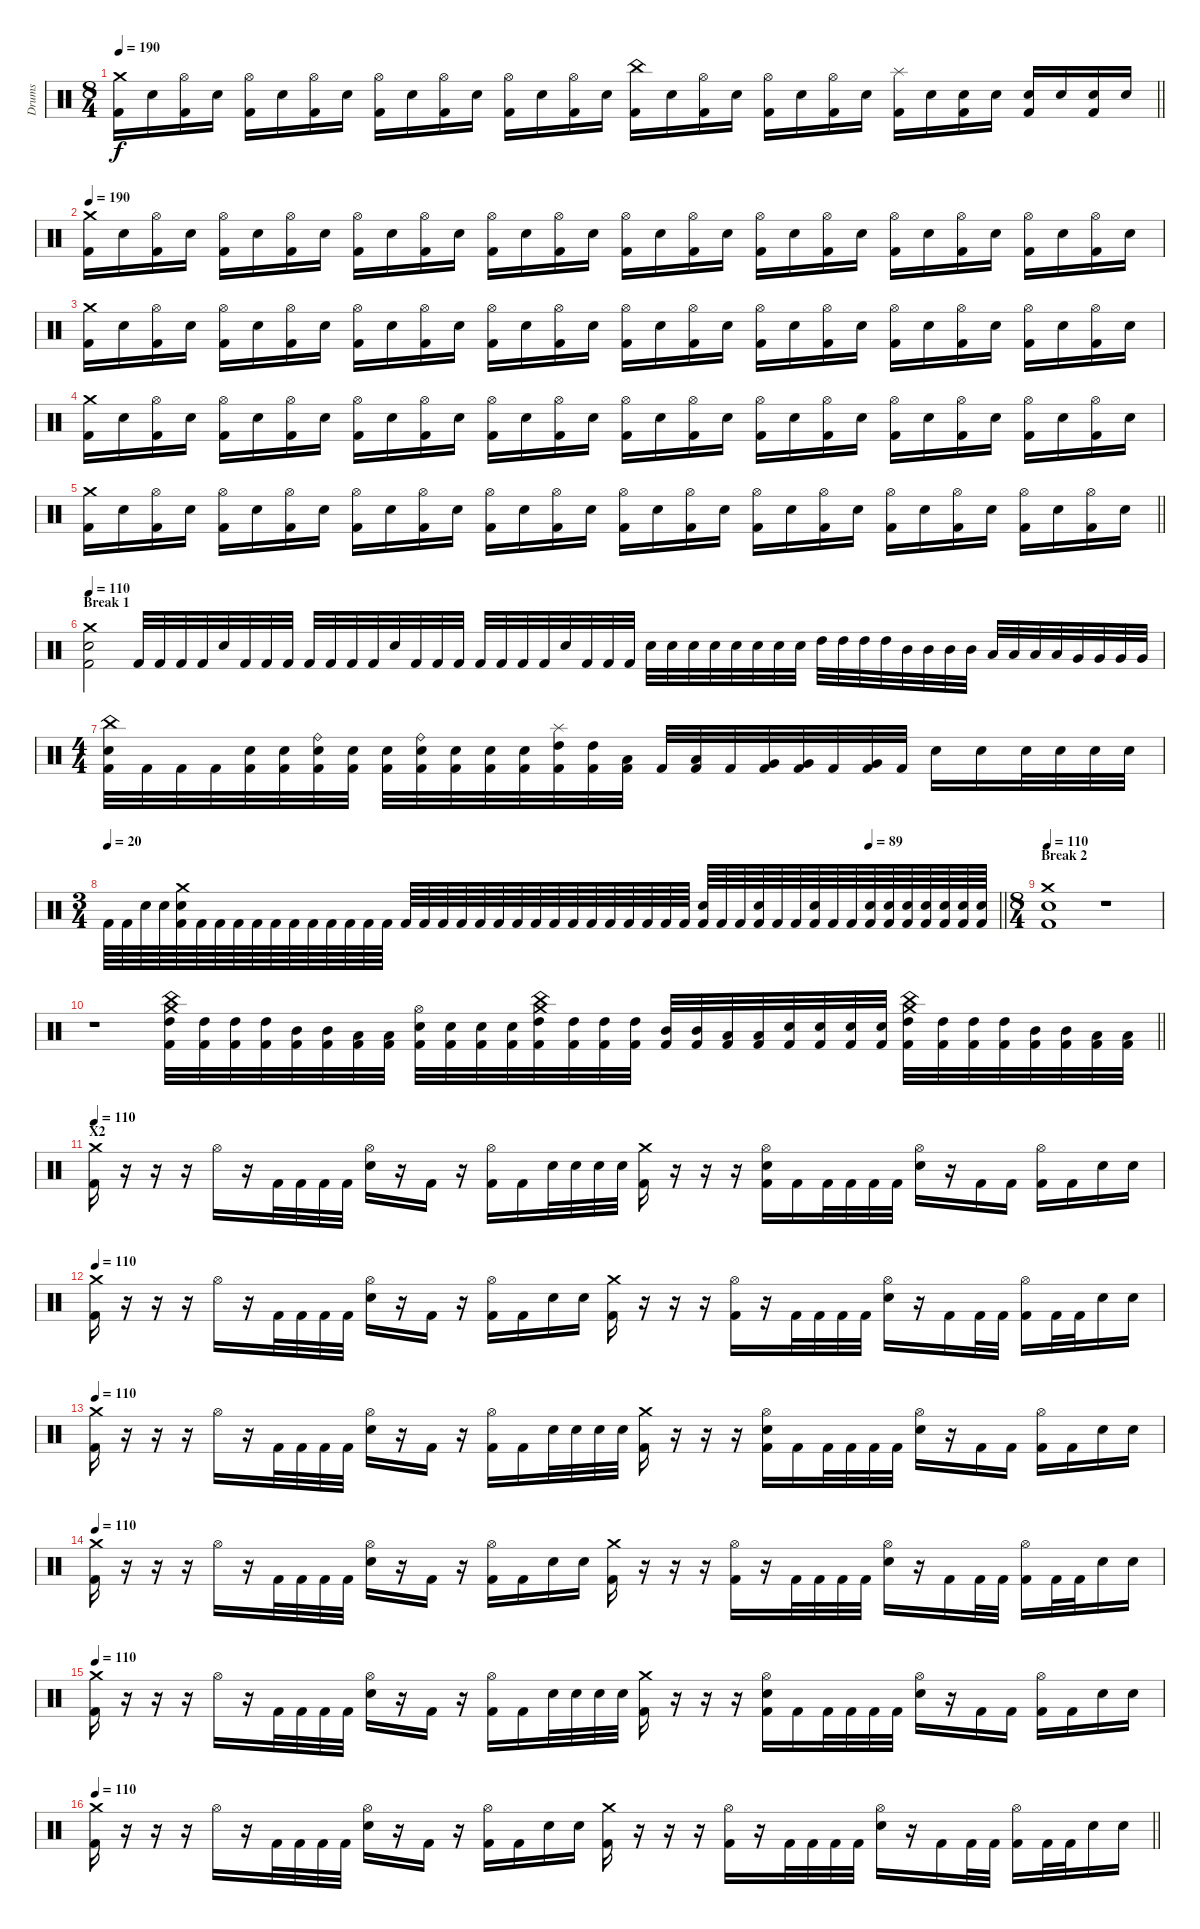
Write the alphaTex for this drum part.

\track ("Drums" "Drums") {instrument percussion}
\staff
\articulation defaults
\ts (8 4)
\tempo 190
\clef neutral
\barLineRight lightlight
\ks c
("Crash medium (hit)" "Kick (hit) 2").16{dy f} "Electric Snare (hit)".16 ("Hi-Hat (open)" "Kick (hit) 2").16 "Electric Snare (hit)".16 ("Hi-Hat (open)" "Kick (hit) 2").16 "Electric Snare (hit)".16 ("Hi-Hat (open)" "Kick (hit) 2").16 "Electric Snare (hit)".16 ("Hi-Hat (open)" "Kick (hit) 2").16 "Electric Snare (hit)".16 ("Hi-Hat (open)" "Kick (hit) 2").16 "Electric Snare (hit)".16 ("Hi-Hat (open)" "Kick (hit) 2").16 "Electric Snare (hit)".16 ("Hi-Hat (open)" "Kick (hit) 2").16 "Electric Snare (hit)".16 ("China (hit)" "Kick (hit) 2").16 "Electric Snare (hit)".16 ("Hi-Hat (open)" "Kick (hit) 2").16 "Electric Snare (hit)".16 ("Hi-Hat (open)" "Kick (hit) 2").16 "Electric Snare (hit)".16 ("Hi-Hat (open)" "Kick (hit) 2").16 "Electric Snare (hit)".16 ("Splash (hit)" "Kick (hit) 2").16 "Electric Snare (hit)".16 ("Electric Snare (hit)" "Kick (hit) 2").16 "Electric Snare (hit)".16 ("Electric Snare (hit)" "Kick (hit) 2").16 "Electric Snare (hit)".16 ("Electric Snare (hit)" "Kick (hit) 2").16 "Electric Snare (hit)".16 |
\tempo 190
("Crash medium (hit)" "Kick (hit) 2").16 "Electric Snare (hit)".16 ("Hi-Hat (open)" "Kick (hit) 2").16 "Electric Snare (hit)".16 ("Hi-Hat (open)" "Kick (hit) 2").16 "Electric Snare (hit)".16 ("Hi-Hat (open)" "Kick (hit) 2").16 "Electric Snare (hit)".16 ("Hi-Hat (open)" "Kick (hit) 2").16 "Electric Snare (hit)".16 ("Hi-Hat (open)" "Kick (hit) 2").16 "Electric Snare (hit)".16 ("Hi-Hat (open)" "Kick (hit) 2").16 "Electric Snare (hit)".16 ("Hi-Hat (open)" "Kick (hit) 2").16 "Electric Snare (hit)".16 ("Hi-Hat (open)" "Kick (hit) 2").16 "Electric Snare (hit)".16 ("Hi-Hat (open)" "Kick (hit) 2").16 "Electric Snare (hit)".16 ("Hi-Hat (open)" "Kick (hit) 2").16 "Electric Snare (hit)".16 ("Hi-Hat (open)" "Kick (hit) 2").16 "Electric Snare (hit)".16 ("Hi-Hat (open)" "Kick (hit) 2").16 "Electric Snare (hit)".16 ("Hi-Hat (open)" "Kick (hit) 2").16 "Electric Snare (hit)".16 ("Hi-Hat (open)" "Kick (hit) 2").16 "Electric Snare (hit)".16 ("Hi-Hat (open)" "Kick (hit) 2").16 "Electric Snare (hit)".16 |
("Crash medium (hit)" "Kick (hit) 2").16 "Electric Snare (hit)".16 ("Hi-Hat (open)" "Kick (hit) 2").16 "Electric Snare (hit)".16 ("Hi-Hat (open)" "Kick (hit) 2").16 "Electric Snare (hit)".16 ("Hi-Hat (open)" "Kick (hit) 2").16 "Electric Snare (hit)".16 ("Hi-Hat (open)" "Kick (hit) 2").16 "Electric Snare (hit)".16 ("Hi-Hat (open)" "Kick (hit) 2").16 "Electric Snare (hit)".16 ("Hi-Hat (open)" "Kick (hit) 2").16 "Electric Snare (hit)".16 ("Hi-Hat (open)" "Kick (hit) 2").16 "Electric Snare (hit)".16 ("Hi-Hat (open)" "Kick (hit) 2").16 "Electric Snare (hit)".16 ("Hi-Hat (open)" "Kick (hit) 2").16 "Electric Snare (hit)".16 ("Hi-Hat (open)" "Kick (hit) 2").16 "Electric Snare (hit)".16 ("Hi-Hat (open)" "Kick (hit) 2").16 "Electric Snare (hit)".16 ("Hi-Hat (open)" "Kick (hit) 2").16 "Electric Snare (hit)".16 ("Hi-Hat (open)" "Kick (hit) 2").16 "Electric Snare (hit)".16 ("Hi-Hat (open)" "Kick (hit) 2").16 "Electric Snare (hit)".16 ("Hi-Hat (open)" "Kick (hit) 2").16 "Electric Snare (hit)".16 |
("Crash medium (hit)" "Kick (hit) 2").16 "Electric Snare (hit)".16 ("Hi-Hat (open)" "Kick (hit) 2").16 "Electric Snare (hit)".16 ("Hi-Hat (open)" "Kick (hit) 2").16 "Electric Snare (hit)".16 ("Hi-Hat (open)" "Kick (hit) 2").16 "Electric Snare (hit)".16 ("Hi-Hat (open)" "Kick (hit) 2").16 "Electric Snare (hit)".16 ("Hi-Hat (open)" "Kick (hit) 2").16 "Electric Snare (hit)".16 ("Hi-Hat (open)" "Kick (hit) 2").16 "Electric Snare (hit)".16 ("Hi-Hat (open)" "Kick (hit) 2").16 "Electric Snare (hit)".16 ("Hi-Hat (open)" "Kick (hit) 2").16 "Electric Snare (hit)".16 ("Hi-Hat (open)" "Kick (hit) 2").16 "Electric Snare (hit)".16 ("Hi-Hat (open)" "Kick (hit) 2").16 "Electric Snare (hit)".16 ("Hi-Hat (open)" "Kick (hit) 2").16 "Electric Snare (hit)".16 ("Hi-Hat (open)" "Kick (hit) 2").16 "Electric Snare (hit)".16 ("Hi-Hat (open)" "Kick (hit) 2").16 "Electric Snare (hit)".16 ("Hi-Hat (open)" "Kick (hit) 2").16 "Electric Snare (hit)".16 ("Hi-Hat (open)" "Kick (hit) 2").16 "Electric Snare (hit)".16 |
\barLineRight lightlight
("Crash medium (hit)" "Kick (hit) 2").16 "Electric Snare (hit)".16 ("Hi-Hat (open)" "Kick (hit) 2").16 "Electric Snare (hit)".16 ("Hi-Hat (open)" "Kick (hit) 2").16 "Electric Snare (hit)".16 ("Hi-Hat (open)" "Kick (hit) 2").16 "Electric Snare (hit)".16 ("Hi-Hat (open)" "Kick (hit) 2").16 "Electric Snare (hit)".16 ("Hi-Hat (open)" "Kick (hit) 2").16 "Electric Snare (hit)".16 ("Hi-Hat (open)" "Kick (hit) 2").16 "Electric Snare (hit)".16 ("Hi-Hat (open)" "Kick (hit) 2").16 "Electric Snare (hit)".16 ("Hi-Hat (open)" "Kick (hit) 2").16 "Electric Snare (hit)".16 ("Hi-Hat (open)" "Kick (hit) 2").16 "Electric Snare (hit)".16 ("Hi-Hat (open)" "Kick (hit) 2").16 "Electric Snare (hit)".16 ("Hi-Hat (open)" "Kick (hit) 2").16 "Electric Snare (hit)".16 ("Hi-Hat (open)" "Kick (hit) 2").16 "Electric Snare (hit)".16 ("Hi-Hat (open)" "Kick (hit) 2").16 "Electric Snare (hit)".16 ("Hi-Hat (open)" "Kick (hit) 2").16 "Electric Snare (hit)".16 ("Hi-Hat (open)" "Kick (hit) 2").16 "Electric Snare (hit)".16 |
\section ("" "Break 1")
\tempo 110
("Kick (hit) 2" "Electric Snare (hit)" "Crash medium (hit)").2 "Kick (hit) 2".32 "Kick (hit) 2".32 "Kick (hit) 2".32 "Kick (hit) 2".32 "Electric Snare (hit)".32 "Kick (hit) 2".32 "Kick (hit) 2".32 "Kick (hit) 2".32 "Kick (hit) 2".32 "Kick (hit) 2".32 "Kick (hit) 2".32 "Kick (hit) 2".32 "Electric Snare (hit)".32 "Kick (hit) 2".32 "Kick (hit) 2".32 "Kick (hit) 2".32 "Kick (hit) 2".32 "Kick (hit) 2".32 "Kick (hit) 2".32 "Kick (hit) 2".32 "Electric Snare (hit)".32 "Kick (hit) 2".32 "Kick (hit) 2".32 "Kick (hit) 2".32 "Electric Snare (hit)".32 "Electric Snare (hit)".32 "Electric Snare (hit)".32 "Electric Snare (hit)".32 "Electric Snare (hit)".32 "Electric Snare (hit)".32 "Electric Snare (hit)".32 "Electric Snare (hit)".32 "High Tom (hit)".32 "High Tom (hit)".32 "High Tom (hit)".32 "High Tom (hit)".32 "Mid Tom (hit)".32 "Mid Tom (hit)".32 "Mid Tom (hit)".32 "Mid Tom (hit)".32 "Low Tom (hit)".32 "Low Tom (hit)".32 "Low Tom (hit)".32 "Low Tom (hit)".32 "Very Low Tom (hit)".32 "Very Low Tom (hit)".32 "Very Low Tom (hit)".32 "Very Low Tom (hit)".32 |
\ts (4 4)
("China (hit)" "Electric Snare (hit)" "Kick (hit) 2").32 "Kick (hit) 2".32 "Kick (hit) 2".32 "Kick (hit) 2".32 ("Electric Snare (hit)" "Kick (hit) 2").32 ("Electric Snare (hit)" "Kick (hit) 2").32 ("Ride (bell)" "Electric Snare (hit)" "Kick (hit) 2").32 ("Electric Snare (hit)" "Kick (hit) 2").32 ("Electric Snare (hit)" "Kick (hit) 2").32 ("Ride (bell)" "Electric Snare (hit)" "Kick (hit) 2").32 ("Electric Snare (hit)" "Kick (hit) 2").32 ("Electric Snare (hit)" "Kick (hit) 2").32 ("Electric Snare (hit)" "Kick (hit) 2").32 ("High Tom (hit)" "Splash (hit)" "Kick (hit) 2").32 ("High Tom (hit)" "Kick (hit) 2").32 ("Low Tom (hit)" "Kick (hit) 2").32 "Kick (hit) 2".32 ("Low Tom (hit)" "Kick (hit) 2").32 "Kick (hit) 2".32 ("Very Low Tom (hit)" "Kick (hit) 2").32 ("Very Low Tom (hit)" "Kick (hit) 2").32 "Kick (hit) 2".32 ("Very Low Tom (hit)" "Kick (hit) 2").32 "Kick (hit) 2".32 "Electric Snare (hit)".16 "Electric Snare (hit)".16 "Electric Snare (hit)".32 "Electric Snare (hit)".32 "Electric Snare (hit)".32 "Electric Snare (hit)".32 |
\ts (3 4)
\tempo 20
\tempo (89 0.8541666666666666)
\barLineRight lightlight "Kick (hit) 2".64 "Kick (hit) 2".64 "Electric Snare (hit)".64 "Electric Snare (hit)".64
("Crash medium (hit)" "Electric Snare (hit)" "Kick (hit) 2").64 "Kick (hit) 2".64 "Kick (hit) 2".64 "Kick (hit) 2".64 "Kick (hit) 2".64 "Kick (hit) 2".64 "Kick (hit) 2".64 "Kick (hit) 2".64 "Kick (hit) 2".64 "Kick (hit) 2".64 "Kick (hit) 2".64 "Kick (hit) 2".64 "Kick (hit) 2".64 "Kick (hit) 2".64 "Kick (hit) 2".64 "Kick (hit) 2".64 "Kick (hit) 2".64 "Kick (hit) 2".64 "Kick (hit) 2".64 "Kick (hit) 2".64 "Kick (hit) 2".64 "Kick (hit) 2".64 "Kick (hit) 2".64 "Kick (hit) 2".64 "Kick (hit) 2".64 "Kick (hit) 2".64 "Kick (hit) 2".64 "Kick (hit) 2".64 ("Electric Snare (hit)" "Kick (hit) 2").64 "Kick (hit) 2".64 "Kick (hit) 2".64 ("Electric Snare (hit)" "Kick (hit) 2").64 "Kick (hit) 2".64 "Kick (hit) 2".64 ("Electric Snare (hit)" "Kick (hit) 2").64 "Kick (hit) 2".64 "Kick (hit) 2".64 ("Electric Snare (hit)" "Kick (hit) 2").64 ("Electric Snare (hit)" "Kick (hit) 2").64 ("Electric Snare (hit)" "Kick (hit) 2").64 ("Electric Snare (hit)" "Kick (hit) 2").64 ("Electric Snare (hit)" "Kick (hit) 2").64 ("Electric Snare (hit)" "Kick (hit) 2").64 ("Electric Snare (hit)" "Kick (hit) 2").64 |
\ts (8 4)
\section ("" "Break 2")
\tempo 110
("Crash medium (hit)" "Electric Snare (hit)" "Kick (hit) 2").1 r.1 |
\barLineRight lightlight
r.1 ("High Tom (hit)" "Crash medium (hit)" "China (hit)" "Kick (hit) 2").32 ("High Tom (hit)" "Kick (hit) 2").32 ("High Tom (hit)" "Kick (hit) 2").32 ("High Tom (hit)" "Kick (hit) 2").32 ("Mid Tom (hit)" "Kick (hit) 2").32 ("Mid Tom (hit)" "Kick (hit) 2").32 ("Low Tom (hit)" "Kick (hit) 2").32 ("Low Tom (hit)" "Kick (hit) 2").32 ("Electric Snare (hit)" "Hi-Hat (open)" "Kick (hit) 2").32 ("Electric Snare (hit)" "Kick (hit) 2").32 ("Electric Snare (hit)" "Kick (hit) 2").32 ("Electric Snare (hit)" "Kick (hit) 2").32 ("High Tom (hit)" "Crash medium (hit)" "China (hit)" "Kick (hit) 2").32 ("High Tom (hit)" "Kick (hit) 2").32 ("High Tom (hit)" "Kick (hit) 2").32 ("High Tom (hit)" "Kick (hit) 2").32 ("Mid Tom (hit)" "Kick (hit) 2").32 ("Mid Tom (hit)" "Kick (hit) 2").32 ("Low Tom (hit)" "Kick (hit) 2").32 ("Low Tom (hit)" "Kick (hit) 2").32 ("Electric Snare (hit)" "Kick (hit) 2").32 ("Electric Snare (hit)" "Kick (hit) 2").32 ("Electric Snare (hit)" "Kick (hit) 2").32 ("Electric Snare (hit)" "Kick (hit) 2").32 ("High Tom (hit)" "Crash medium (hit)" "China (hit)" "Kick (hit) 2").32 ("High Tom (hit)" "Kick (hit) 2").32 ("High Tom (hit)" "Kick (hit) 2").32 ("High Tom (hit)" "Kick (hit) 2").32 ("Mid Tom (hit)" "Kick (hit) 2").32 ("Mid Tom (hit)" "Kick (hit) 2").32 ("Low Tom (hit)" "Kick (hit) 2").32 ("Low Tom (hit)" "Kick (hit) 2").32 |
\section ("" "X2")
\tempo 110
("Crash medium (hit)" "Kick (hit) 2").16 r.16 r.16 r.16 "Hi-Hat (open)".16 r.16 "Kick (hit) 2".32 "Kick (hit) 2".32 "Kick (hit) 2".32 "Kick (hit) 2".32 ("Hi-Hat (open)" "Electric Snare (hit)").16 r.16 "Kick (hit) 2".16 r.16 ("Hi-Hat (open)" "Kick (hit) 2").16 "Kick (hit) 2".16 "Electric Snare (hit)".32 "Electric Snare (hit)".32 "Electric Snare (hit)".32 "Electric Snare (hit)".32 ("Crash medium (hit)" "Kick (hit) 2").16 r.16 r.16 r.16 ("Hi-Hat (open)" "Electric Snare (hit)" "Kick (hit) 2").16 "Kick (hit) 2".16 "Kick (hit) 2".32 "Kick (hit) 2".32 "Kick (hit) 2".32 "Kick (hit) 2".32 ("Hi-Hat (open)" "Electric Snare (hit)").16 r.16 "Kick (hit) 2".16 "Kick (hit) 2".16 ("Hi-Hat (open)" "Kick (hit) 2").16 "Kick (hit) 2".16 "Electric Snare (hit)".16 "Electric Snare (hit)".16 |
\tempo 110
("Crash medium (hit)" "Kick (hit) 2").16 r.16 r.16 r.16 "Hi-Hat (open)".16 r.16 "Kick (hit) 2".32 "Kick (hit) 2".32 "Kick (hit) 2".32 "Kick (hit) 2".32 ("Hi-Hat (open)" "Electric Snare (hit)").16 r.16 "Kick (hit) 2".16 r.16 ("Hi-Hat (open)" "Kick (hit) 2").16 "Kick (hit) 2".16 "Electric Snare (hit)".16 "Electric Snare (hit)".16 ("Crash medium (hit)" "Kick (hit) 2").16 r.16 r.16 r.16 ("Hi-Hat (open)" "Kick (hit) 2").16 r.16 "Kick (hit) 2".32 "Kick (hit) 2".32 "Kick (hit) 2".32 "Kick (hit) 2".32 ("Hi-Hat (open)" "Electric Snare (hit)").16 r.16 "Kick (hit) 2".16 "Kick (hit) 2".32 "Kick (hit) 2".32 ("Hi-Hat (open)" "Kick (hit) 2").16 "Kick (hit) 2".32 "Kick (hit) 2".32 "Electric Snare (hit)".16 "Electric Snare (hit)".16 |
\tempo 110
("Crash medium (hit)" "Kick (hit) 2").16 r.16 r.16 r.16 "Hi-Hat (open)".16 r.16 "Kick (hit) 2".32 "Kick (hit) 2".32 "Kick (hit) 2".32 "Kick (hit) 2".32 ("Hi-Hat (open)" "Electric Snare (hit)").16 r.16 "Kick (hit) 2".16 r.16 ("Hi-Hat (open)" "Kick (hit) 2").16 "Kick (hit) 2".16 "Electric Snare (hit)".32 "Electric Snare (hit)".32 "Electric Snare (hit)".32 "Electric Snare (hit)".32 ("Crash medium (hit)" "Kick (hit) 2").16 r.16 r.16 r.16 ("Hi-Hat (open)" "Electric Snare (hit)" "Kick (hit) 2").16 "Kick (hit) 2".16 "Kick (hit) 2".32 "Kick (hit) 2".32 "Kick (hit) 2".32 "Kick (hit) 2".32 ("Hi-Hat (open)" "Electric Snare (hit)").16 r.16 "Kick (hit) 2".16 "Kick (hit) 2".16 ("Hi-Hat (open)" "Kick (hit) 2").16 "Kick (hit) 2".16 "Electric Snare (hit)".16 "Electric Snare (hit)".16 |
\tempo 110
("Crash medium (hit)" "Kick (hit) 2").16 r.16 r.16 r.16 "Hi-Hat (open)".16 r.16 "Kick (hit) 2".32 "Kick (hit) 2".32 "Kick (hit) 2".32 "Kick (hit) 2".32 ("Hi-Hat (open)" "Electric Snare (hit)").16 r.16 "Kick (hit) 2".16 r.16 ("Hi-Hat (open)" "Kick (hit) 2").16 "Kick (hit) 2".16 "Electric Snare (hit)".16 "Electric Snare (hit)".16 ("Crash medium (hit)" "Kick (hit) 2").16 r.16 r.16 r.16 ("Hi-Hat (open)" "Kick (hit) 2").16 r.16 "Kick (hit) 2".32 "Kick (hit) 2".32 "Kick (hit) 2".32 "Kick (hit) 2".32 ("Hi-Hat (open)" "Electric Snare (hit)").16 r.16 "Kick (hit) 2".16 "Kick (hit) 2".32 "Kick (hit) 2".32 ("Hi-Hat (open)" "Kick (hit) 2").16 "Kick (hit) 2".32 "Kick (hit) 2".32 "Electric Snare (hit)".16 "Electric Snare (hit)".16 |
\tempo 110
("Crash medium (hit)" "Kick (hit) 2").16 r.16 r.16 r.16 "Hi-Hat (open)".16 r.16 "Kick (hit) 2".32 "Kick (hit) 2".32 "Kick (hit) 2".32 "Kick (hit) 2".32 ("Hi-Hat (open)" "Electric Snare (hit)").16 r.16 "Kick (hit) 2".16 r.16 ("Hi-Hat (open)" "Kick (hit) 2").16 "Kick (hit) 2".16 "Electric Snare (hit)".32 "Electric Snare (hit)".32 "Electric Snare (hit)".32 "Electric Snare (hit)".32 ("Crash medium (hit)" "Kick (hit) 2").16 r.16 r.16 r.16 ("Hi-Hat (open)" "Electric Snare (hit)" "Kick (hit) 2").16 "Kick (hit) 2".16 "Kick (hit) 2".32 "Kick (hit) 2".32 "Kick (hit) 2".32 "Kick (hit) 2".32 ("Hi-Hat (open)" "Electric Snare (hit)").16 r.16 "Kick (hit) 2".16 "Kick (hit) 2".16 ("Hi-Hat (open)" "Kick (hit) 2").16 "Kick (hit) 2".16 "Electric Snare (hit)".16 "Electric Snare (hit)".16 |
\tempo 110
\barLineRight lightlight
("Crash medium (hit)" "Kick (hit) 2").16 r.16 r.16 r.16 "Hi-Hat (open)".16 r.16 "Kick (hit) 2".32 "Kick (hit) 2".32 "Kick (hit) 2".32 "Kick (hit) 2".32 ("Hi-Hat (open)" "Electric Snare (hit)").16 r.16 "Kick (hit) 2".16 r.16 ("Hi-Hat (open)" "Kick (hit) 2").16 "Kick (hit) 2".16 "Electric Snare (hit)".16 "Electric Snare (hit)".16 ("Crash medium (hit)" "Kick (hit) 2").16 r.16 r.16 r.16 ("Hi-Hat (open)" "Kick (hit) 2").16 r.16 "Kick (hit) 2".32 "Kick (hit) 2".32 "Kick (hit) 2".32 "Kick (hit) 2".32 ("Hi-Hat (open)" "Electric Snare (hit)").16 r.16 "Kick (hit) 2".16 "Kick (hit) 2".32 "Kick (hit) 2".32 ("Hi-Hat (open)" "Kick (hit) 2").16 "Kick (hit) 2".32 "Kick (hit) 2".32 "Electric Snare (hit)".16 "Electric Snare (hit)".16
